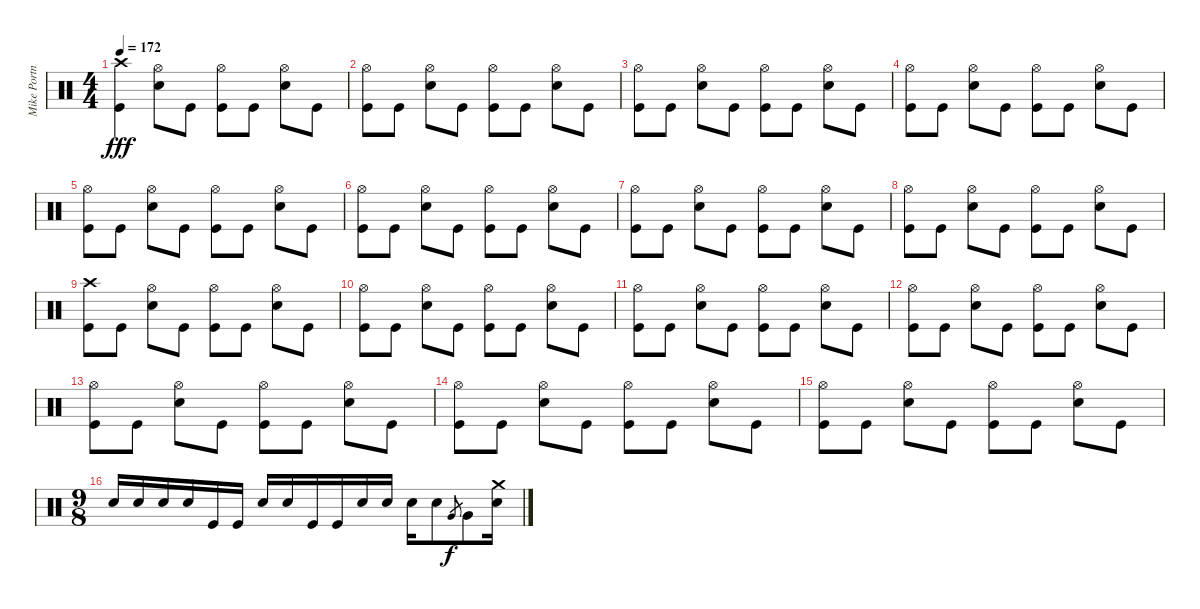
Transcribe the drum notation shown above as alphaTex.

\track ("Mike Portnoy" "Mike Portn") {instrument percussion}
\staff {score}
\articulation defaults
\ts (4 4)
\tempo 172
\clef neutral
\ks c
("Crash high (hit)" "Kick (hit)").4{dy fff} ("Hi-Hat (open)" "Snare (hit) 2").8 "Kick (hit)".8 ("Hi-Hat (open)" "Kick (hit)").8 "Kick (hit)".8 ("Hi-Hat (open)" "Snare (hit) 2").8 "Kick (hit)".8 |
("Hi-Hat (open)" "Kick (hit)").8 "Kick (hit)".8 ("Hi-Hat (open)" "Snare (hit) 2").8 "Kick (hit)".8 ("Hi-Hat (open)" "Kick (hit)").8 "Kick (hit)".8 ("Hi-Hat (open)" "Snare (hit) 2").8 "Kick (hit)".8 |
("Hi-Hat (open)" "Kick (hit)").8 "Kick (hit)".8 ("Hi-Hat (open)" "Snare (hit) 2").8 "Kick (hit)".8 ("Hi-Hat (open)" "Kick (hit)").8 "Kick (hit)".8 ("Hi-Hat (open)" "Snare (hit) 2").8 "Kick (hit)".8 |
("Hi-Hat (open)" "Kick (hit)").8 "Kick (hit)".8 ("Hi-Hat (open)" "Snare (hit) 2").8 "Kick (hit)".8 ("Hi-Hat (open)" "Kick (hit)").8 "Kick (hit)".8 ("Hi-Hat (open)" "Snare (hit) 2").8 "Kick (hit)".8 |
("Hi-Hat (open)" "Kick (hit)").8 "Kick (hit)".8 ("Hi-Hat (open)" "Snare (hit) 2").8 "Kick (hit)".8 ("Hi-Hat (open)" "Kick (hit)").8 "Kick (hit)".8 ("Hi-Hat (open)" "Snare (hit) 2").8 "Kick (hit)".8 |
("Hi-Hat (open)" "Kick (hit)").8 "Kick (hit)".8 ("Hi-Hat (open)" "Snare (hit) 2").8 "Kick (hit)".8 ("Hi-Hat (open)" "Kick (hit)").8 "Kick (hit)".8 ("Hi-Hat (open)" "Snare (hit) 2").8 "Kick (hit)".8 |
("Hi-Hat (open)" "Kick (hit)").8 "Kick (hit)".8 ("Hi-Hat (open)" "Snare (hit) 2").8 "Kick (hit)".8 ("Hi-Hat (open)" "Kick (hit)").8 "Kick (hit)".8 ("Hi-Hat (open)" "Snare (hit) 2").8 "Kick (hit)".8 |
("Hi-Hat (open)" "Kick (hit)").8 "Kick (hit)".8 ("Hi-Hat (open)" "Snare (hit) 2").8 "Kick (hit)".8 ("Hi-Hat (open)" "Kick (hit)").8 "Kick (hit)".8 ("Hi-Hat (open)" "Snare (hit) 2").8 "Kick (hit)".8 |
("Crash high (hit)" "Kick (hit)").8 "Kick (hit)".8 ("Hi-Hat (open)" "Snare (hit) 2").8 "Kick (hit)".8 ("Hi-Hat (open)" "Kick (hit)").8 "Kick (hit)".8 ("Hi-Hat (open)" "Snare (hit) 2").8 "Kick (hit)".8 |
("Hi-Hat (open)" "Kick (hit)").8 "Kick (hit)".8 ("Hi-Hat (open)" "Snare (hit) 2").8 "Kick (hit)".8 ("Hi-Hat (open)" "Kick (hit)").8 "Kick (hit)".8 ("Hi-Hat (open)" "Snare (hit) 2").8 "Kick (hit)".8 |
("Hi-Hat (open)" "Kick (hit)").8 "Kick (hit)".8 ("Hi-Hat (open)" "Snare (hit) 2").8 "Kick (hit)".8 ("Hi-Hat (open)" "Kick (hit)").8 "Kick (hit)".8 ("Hi-Hat (open)" "Snare (hit) 2").8 "Kick (hit)".8 |
("Hi-Hat (open)" "Kick (hit)").8 "Kick (hit)".8 ("Hi-Hat (open)" "Snare (hit) 2").8 "Kick (hit)".8 ("Hi-Hat (open)" "Kick (hit)").8 "Kick (hit)".8 ("Hi-Hat (open)" "Snare (hit) 2").8 "Kick (hit)".8 |
("Hi-Hat (open)" "Kick (hit)").8 "Kick (hit)".8 ("Hi-Hat (open)" "Snare (hit) 2").8 "Kick (hit)".8 ("Hi-Hat (open)" "Kick (hit)").8 "Kick (hit)".8 ("Hi-Hat (open)" "Snare (hit) 2").8 "Kick (hit)".8 |
("Hi-Hat (open)" "Kick (hit)").8 "Kick (hit)".8 ("Hi-Hat (open)" "Snare (hit) 2").8 "Kick (hit)".8 ("Hi-Hat (open)" "Kick (hit)").8 "Kick (hit)".8 ("Hi-Hat (open)" "Snare (hit) 2").8 "Kick (hit)".8 |
("Hi-Hat (open)" "Kick (hit)").8 "Kick (hit)".8 ("Hi-Hat (open)" "Snare (hit) 2").8 "Kick (hit)".8 ("Hi-Hat (open)" "Kick (hit)").8 "Kick (hit)".8 ("Hi-Hat (open)" "Snare (hit) 2").8 "Kick (hit)".8 |
\ts (9 8)
"Snare (hit) 2".16 "Snare (hit) 2".16 "Snare (hit) 2".16 "Snare (hit) 2".16 "Kick (hit)".16 "Kick (hit)".16 "Snare (hit) 2".16 "Snare (hit) 2".16 "Kick (hit)".16 "Kick (hit)".16 "Snare (hit) 2".16 "Snare (hit) 2".16 "Snare (hit) 2".16 "Snare (hit) 2".8 "Very Low Tom (hit)".8{gr dy f} "Very Low Tom (hit)".8 ("Crash medium (hit)" "Snare (hit) 2").16
